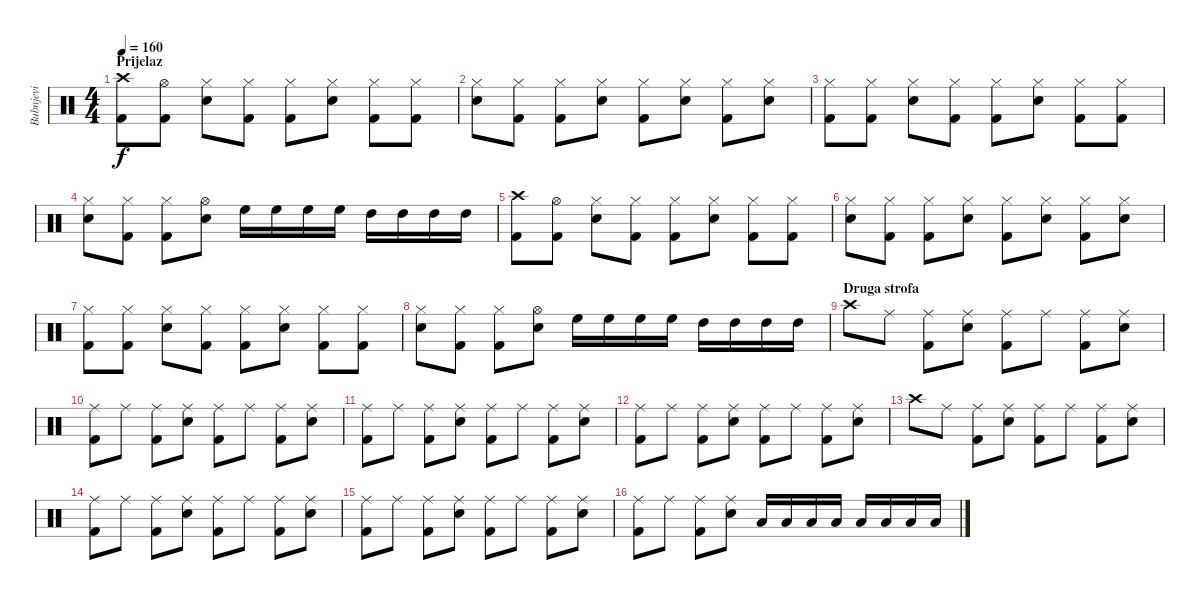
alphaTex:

\track ("Bubnjevi" "Bubnjevi") {instrument percussion}
\staff {score}
\articulation defaults
\ts (4 4)
\section ("" "Prijelaz")
\tempo 160
\clef neutral
\ks c
("Crash high (hit)" "Kick (hit) 2").8{dy f} ("Hi-Hat (open)" "Kick (hit) 2").8 ("Hi-Hat (closed)" "Snare (hit) 2").8 ("Hi-Hat (closed)" "Kick (hit) 2").8 ("Hi-Hat (closed)" "Kick (hit) 2").8 ("Hi-Hat (closed)" "Snare (hit) 2").8 ("Hi-Hat (closed)" "Kick (hit) 2").8 ("Hi-Hat (closed)" "Kick (hit) 2").8 |
("Hi-Hat (closed)" "Snare (hit) 2").8 ("Hi-Hat (closed)" "Kick (hit) 2").8 ("Hi-Hat (closed)" "Kick (hit) 2").8 ("Hi-Hat (closed)" "Snare (hit) 2").8 ("Hi-Hat (closed)" "Kick (hit) 2").8 ("Hi-Hat (closed)" "Snare (hit) 2").8 ("Hi-Hat (closed)" "Kick (hit) 2").8 ("Hi-Hat (closed)" "Snare (hit) 2").8 |
("Hi-Hat (closed)" "Kick (hit) 2").8 ("Hi-Hat (closed)" "Kick (hit) 2").8 ("Hi-Hat (closed)" "Snare (hit) 2").8 ("Hi-Hat (closed)" "Kick (hit) 2").8 ("Hi-Hat (closed)" "Kick (hit) 2").8 ("Hi-Hat (closed)" "Snare (hit) 2").8 ("Hi-Hat (closed)" "Kick (hit) 2").8 ("Hi-Hat (closed)" "Kick (hit) 2").8 |
("Hi-Hat (closed)" "Snare (hit) 2").8 ("Hi-Hat (closed)" "Kick (hit) 2").8 ("Hi-Hat (closed)" "Kick (hit) 2").8 ("Hi-Hat (open)" "Snare (hit) 2").8 "High Floor Tom (hit)".16 "High Floor Tom (hit)".16 "High Floor Tom (hit)".16 "High Floor Tom (hit)".16 "High Tom (hit)".16 "High Tom (hit)".16 "High Tom (hit)".16 "High Tom (hit)".16 |
("Crash high (hit)" "Kick (hit) 2").8 ("Hi-Hat (open)" "Kick (hit) 2").8 ("Hi-Hat (closed)" "Snare (hit) 2").8 ("Hi-Hat (closed)" "Kick (hit) 2").8 ("Hi-Hat (closed)" "Kick (hit) 2").8 ("Hi-Hat (closed)" "Snare (hit) 2").8 ("Hi-Hat (closed)" "Kick (hit) 2").8 ("Hi-Hat (closed)" "Kick (hit) 2").8 |
("Hi-Hat (closed)" "Snare (hit) 2").8 ("Hi-Hat (closed)" "Kick (hit) 2").8 ("Hi-Hat (closed)" "Kick (hit) 2").8 ("Hi-Hat (closed)" "Snare (hit) 2").8 ("Hi-Hat (closed)" "Kick (hit) 2").8 ("Hi-Hat (closed)" "Snare (hit) 2").8 ("Hi-Hat (closed)" "Kick (hit) 2").8 ("Hi-Hat (closed)" "Snare (hit) 2").8 |
("Hi-Hat (closed)" "Kick (hit) 2").8 ("Hi-Hat (closed)" "Kick (hit) 2").8 ("Hi-Hat (closed)" "Snare (hit) 2").8 ("Hi-Hat (closed)" "Kick (hit) 2").8 ("Hi-Hat (closed)" "Kick (hit) 2").8 ("Hi-Hat (closed)" "Snare (hit) 2").8 ("Hi-Hat (closed)" "Kick (hit) 2").8 ("Hi-Hat (closed)" "Kick (hit) 2").8 |
("Hi-Hat (closed)" "Snare (hit) 2").8 ("Hi-Hat (closed)" "Kick (hit) 2").8 ("Hi-Hat (closed)" "Kick (hit) 2").8 ("Hi-Hat (open)" "Snare (hit) 2").8 "High Floor Tom (hit)".16 "High Floor Tom (hit)".16 "High Floor Tom (hit)".16 "High Floor Tom (hit)".16 "High Tom (hit)".16 "High Tom (hit)".16 "High Tom (hit)".16 "High Tom (hit)".16 |
\section ("" "Druga strofa")
"Crash high (hit)".8 "Ride (middle)".8 ("Ride (middle)" "Kick (hit) 2").8 ("Ride (middle)" "Snare (hit) 2").8 ("Ride (middle)" "Kick (hit) 2").8 "Ride (middle)".8 ("Ride (middle)" "Kick (hit) 2").8 ("Ride (middle)" "Snare (hit) 2").8 |
("Ride (middle)" "Kick (hit) 2").8 "Ride (middle)".8 ("Ride (middle)" "Kick (hit) 2").8 ("Ride (middle)" "Snare (hit) 2").8 ("Ride (middle)" "Kick (hit) 2").8 "Ride (middle)".8 ("Ride (middle)" "Kick (hit) 2").8 ("Ride (middle)" "Snare (hit) 2").8 |
("Ride (middle)" "Kick (hit) 2").8 "Ride (middle)".8 ("Ride (middle)" "Kick (hit) 2").8 ("Ride (middle)" "Snare (hit) 2").8 ("Ride (middle)" "Kick (hit) 2").8 "Ride (middle)".8 ("Ride (middle)" "Kick (hit) 2").8 ("Ride (middle)" "Snare (hit) 2").8 |
("Ride (middle)" "Kick (hit) 2").8 "Ride (middle)".8 ("Ride (middle)" "Kick (hit) 2").8 ("Ride (middle)" "Snare (hit) 2").8 ("Ride (middle)" "Kick (hit) 2").8 "Ride (middle)".8 ("Ride (middle)" "Kick (hit) 2").8 ("Ride (middle)" "Snare (hit) 2").8 |
"Crash high (hit)".8 "Ride (middle)".8 ("Ride (middle)" "Kick (hit) 2").8 ("Ride (middle)" "Snare (hit) 2").8 ("Ride (middle)" "Kick (hit) 2").8 "Ride (middle)".8 ("Ride (middle)" "Kick (hit) 2").8 ("Ride (middle)" "Snare (hit) 2").8 |
("Ride (middle)" "Kick (hit) 2").8 "Ride (middle)".8 ("Ride (middle)" "Kick (hit) 2").8 ("Ride (middle)" "Snare (hit) 2").8 ("Ride (middle)" "Kick (hit) 2").8 "Ride (middle)".8 ("Ride (middle)" "Kick (hit) 2").8 ("Ride (middle)" "Snare (hit) 2").8 |
("Ride (middle)" "Kick (hit) 2").8 "Ride (middle)".8 ("Ride (middle)" "Kick (hit) 2").8 ("Ride (middle)" "Snare (hit) 2").8 ("Ride (middle)" "Kick (hit) 2").8 "Ride (middle)".8 ("Ride (middle)" "Kick (hit) 2").8 ("Ride (middle)" "Snare (hit) 2").8 |
("Ride (middle)" "Kick (hit) 2").8 "Ride (middle)".8 ("Ride (middle)" "Kick (hit) 2").8 ("Ride (middle)" "Snare (hit) 2").8 "Low Tom (hit)".16 "Low Tom (hit)".16 "Low Tom (hit)".16 "Low Tom (hit)".16 "Low Tom (hit)".16 "Low Tom (hit)".16 "Low Tom (hit)".16 "Low Tom (hit)".16
